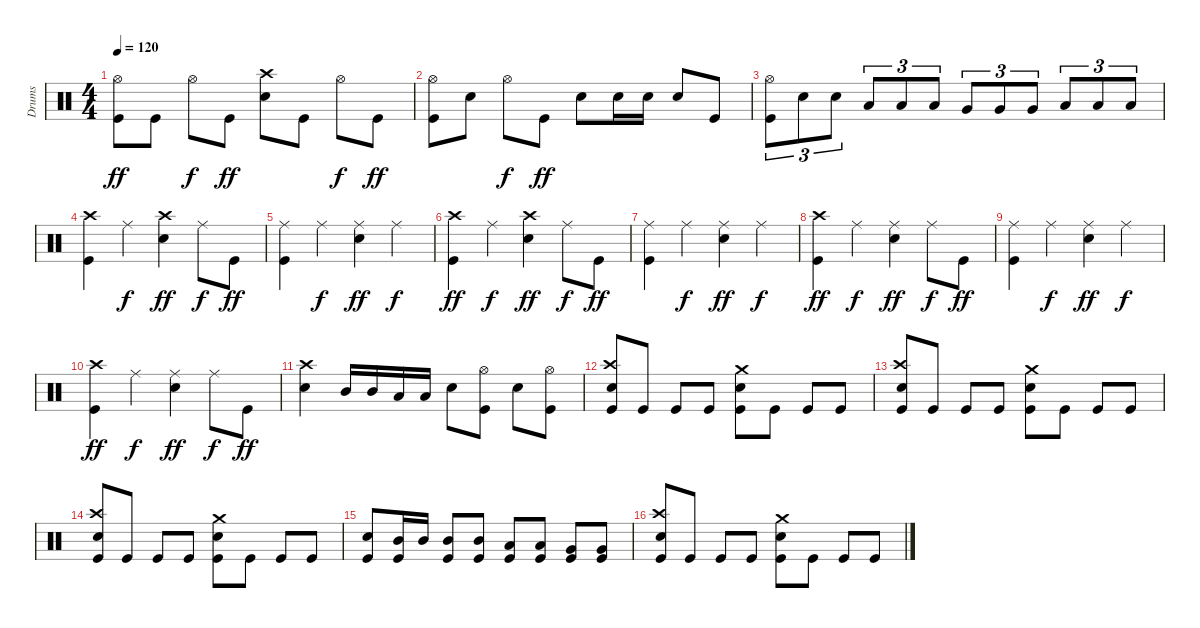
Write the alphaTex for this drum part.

\track ("Drums" "Drums") {instrument percussion}
\staff {score}
\articulation defaults
\ts (4 4)
\tempo 120
\clef neutral
\ks c
("Hi-Hat (open)" "Kick (hit)").8{dy ff} "Kick (hit)".8 "Hi-Hat (open)".8{dy f} "Kick (hit)".8{dy ff} ("Crash high (hit)" "Electric Snare (hit)").8 "Kick (hit)".8 "Hi-Hat (open)".8{dy f} "Kick (hit)".8{dy ff} |
("Hi-Hat (open)" "Kick (hit)").8 "Electric Snare (hit)".8 "Hi-Hat (open)".8{dy f} "Kick (hit)".8{dy ff} "Electric Snare (hit)".8 "Electric Snare (hit)".16 "Electric Snare (hit)".16 "Electric Snare (hit)".8 "Kick (hit)".8 |
("Hi-Hat (open)" "Kick (hit)").8{tu (3 2)} "Electric Snare (hit)".8{tu (3 2)} "Electric Snare (hit)".8{tu (3 2)} "Low Tom (hit)".8{tu (3 2)} "Low Tom (hit)".8{tu (3 2)} "Low Tom (hit)".8{tu (3 2)} "Very Low Tom (hit)".8{tu (3 2)} "Very Low Tom (hit)".8{tu (3 2)} "Very Low Tom (hit)".8{tu (3 2)} "Low Floor Tom (hit)".8{tu (3 2)} "Low Floor Tom (hit)".8{tu (3 2)} "Low Floor Tom (hit)".8{tu (3 2)} |
("Crash high (hit)" "Kick (hit)").4 "Ride (middle)".4{dy f} ("Crash high (hit)" "Electric Snare (hit)").4{dy ff} "Ride (middle)".8{dy f} "Kick (hit)".8{dy ff} |
("Ride (middle)" "Kick (hit)").4 "Ride (middle)".4{dy f} ("Ride (middle)" "Electric Snare (hit)").4{dy ff} "Ride (middle)".4{dy f} |
("Crash high (hit)" "Kick (hit)").4{dy ff} "Ride (middle)".4{dy f} ("Crash high (hit)" "Electric Snare (hit)").4{dy ff} "Ride (middle)".8{dy f} "Kick (hit)".8{dy ff} |
("Ride (middle)" "Kick (hit)").4 "Ride (middle)".4{dy f} ("Ride (middle)" "Electric Snare (hit)").4{dy ff} "Ride (middle)".4{dy f} |
("Crash high (hit)" "Kick (hit)").4{dy ff} "Ride (middle)".4{dy f} ("Ride (middle)" "Electric Snare (hit)").4{dy ff} "Ride (middle)".8{dy f} "Kick (hit)".8{dy ff} |
("Ride (middle)" "Kick (hit)").4 "Ride (middle)".4{dy f} ("Ride (middle)" "Electric Snare (hit)").4{dy ff} "Ride (middle)".4{dy f} |
("Crash high (hit)" "Kick (hit)").4{dy ff} "Ride (middle)".4{dy f} ("Ride (middle)" "Electric Snare (hit)").4{dy ff} "Ride (middle)".8{dy f} "Kick (hit)".8{dy ff} |
("Crash high (hit)" "Electric Snare (hit)").4 "Mid Tom (hit)".16 "Mid Tom (hit)".16 "Low Tom (hit)".16 "Low Tom (hit)".16 "Electric Snare (hit)".8 ("Hi-Hat (open)" "Kick (hit)").8 "Electric Snare (hit)".8 ("Hi-Hat (open)" "Kick (hit)").8 |
("Crash high (hit)" "Electric Snare (hit)" "Kick (hit)").8 "Kick (hit)".8 "Kick (hit)".8 "Kick (hit)".8 ("Crash medium (hit)" "Electric Snare (hit)" "Kick (hit)").8 "Kick (hit)".8 "Kick (hit)".8 "Kick (hit)".8 |
("Crash high (hit)" "Electric Snare (hit)" "Kick (hit)").8 "Kick (hit)".8 "Kick (hit)".8 "Kick (hit)".8 ("Crash medium (hit)" "Electric Snare (hit)" "Kick (hit)").8 "Kick (hit)".8 "Kick (hit)".8 "Kick (hit)".8 |
("Crash high (hit)" "Electric Snare (hit)" "Kick (hit)").8 "Kick (hit)".8 "Kick (hit)".8 "Kick (hit)".8 ("Crash medium (hit)" "Electric Snare (hit)" "Kick (hit)").8 "Kick (hit)".8 "Kick (hit)".8 "Kick (hit)".8 |
("Electric Snare (hit)" "Kick (hit)").8 ("Mid Tom (hit)" "Kick (hit)").16 "Mid Tom (hit)".16 ("Mid Tom (hit)" "Kick (hit)").8 ("Mid Tom (hit)" "Kick (hit)").8 ("Low Tom (hit)" "Kick (hit)").8 ("Low Tom (hit)" "Kick (hit)").8 ("Very Low Tom (hit)" "Kick (hit)").8 ("Very Low Tom (hit)" "Kick (hit)").8 |
("Crash high (hit)" "Electric Snare (hit)" "Kick (hit)").8 "Kick (hit)".8 "Kick (hit)".8 "Kick (hit)".8 ("Crash medium (hit)" "Electric Snare (hit)" "Kick (hit)").8 "Kick (hit)".8 "Kick (hit)".8 "Kick (hit)".8
